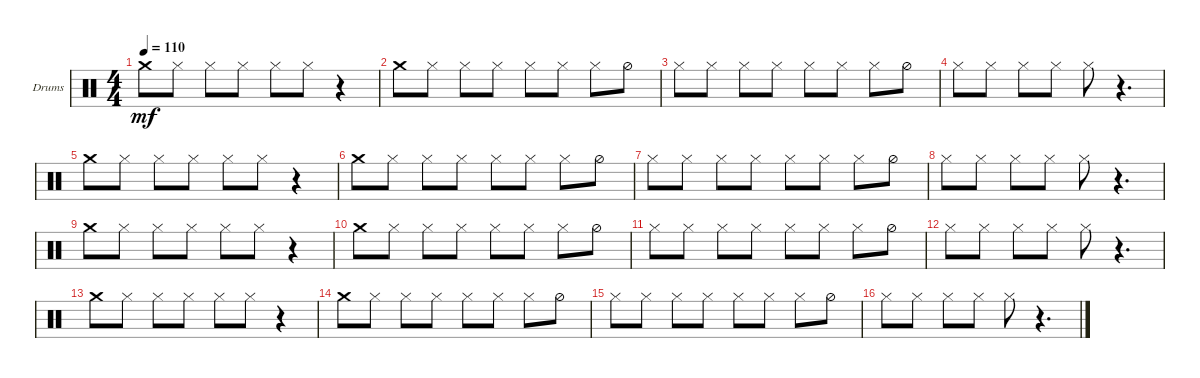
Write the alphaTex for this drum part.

\defaultSystemsLayout 4
\bracketExtendMode groupsimilarinstruments
\firstSystemTrackNameOrientation horizontal
\otherSystemsTrackNameOrientation horizontal
\track ("Drumkit" "Drums") {instrument percussion}
\staff {score}
\articulation defaults
\ts (4 4)
\tempo 110
\clef neutral
\ks c "Crash medium (hit)".8{dy mf} "Hi-Hat (closed)".8 "Hi-Hat (closed)".8 "Hi-Hat (closed)".8 "Hi-Hat (closed)".8 "Hi-Hat (closed)".8
r.4 |
"Crash medium (hit)".8 "Hi-Hat (closed)".8 "Hi-Hat (closed)".8 "Hi-Hat (closed)".8 "Hi-Hat (closed)".8 "Hi-Hat (closed)".8 "Hi-Hat (closed)".8 "Hi-Hat (half)".8 |
"Hi-Hat (closed)".8 "Hi-Hat (closed)".8 "Hi-Hat (closed)".8 "Hi-Hat (closed)".8 "Hi-Hat (closed)".8 "Hi-Hat (closed)".8 "Hi-Hat (closed)".8 "Hi-Hat (half)".8 |
"Hi-Hat (closed)".8 "Hi-Hat (closed)".8 "Hi-Hat (closed)".8 "Hi-Hat (closed)".8 "Hi-Hat (closed)".8 r.4{d} |
"Crash medium (hit)".8 "Hi-Hat (closed)".8 "Hi-Hat (closed)".8 "Hi-Hat (closed)".8 "Hi-Hat (closed)".8 "Hi-Hat (closed)".8 r.4 |
"Crash medium (hit)".8 "Hi-Hat (closed)".8 "Hi-Hat (closed)".8 "Hi-Hat (closed)".8 "Hi-Hat (closed)".8 "Hi-Hat (closed)".8 "Hi-Hat (closed)".8 "Hi-Hat (half)".8 |
"Hi-Hat (closed)".8 "Hi-Hat (closed)".8 "Hi-Hat (closed)".8 "Hi-Hat (closed)".8 "Hi-Hat (closed)".8 "Hi-Hat (closed)".8 "Hi-Hat (closed)".8 "Hi-Hat (half)".8 |
"Hi-Hat (closed)".8 "Hi-Hat (closed)".8 "Hi-Hat (closed)".8 "Hi-Hat (closed)".8 "Hi-Hat (closed)".8 r.4{d} |
"Crash medium (hit)".8 "Hi-Hat (closed)".8 "Hi-Hat (closed)".8 "Hi-Hat (closed)".8 "Hi-Hat (closed)".8 "Hi-Hat (closed)".8 r.4 |
"Crash medium (hit)".8 "Hi-Hat (closed)".8 "Hi-Hat (closed)".8 "Hi-Hat (closed)".8 "Hi-Hat (closed)".8 "Hi-Hat (closed)".8 "Hi-Hat (closed)".8 "Hi-Hat (half)".8 |
"Hi-Hat (closed)".8 "Hi-Hat (closed)".8 "Hi-Hat (closed)".8 "Hi-Hat (closed)".8 "Hi-Hat (closed)".8 "Hi-Hat (closed)".8 "Hi-Hat (closed)".8 "Hi-Hat (half)".8 |
"Hi-Hat (closed)".8 "Hi-Hat (closed)".8 "Hi-Hat (closed)".8 "Hi-Hat (closed)".8 "Hi-Hat (closed)".8 r.4{d} |
"Crash medium (hit)".8 "Hi-Hat (closed)".8 "Hi-Hat (closed)".8 "Hi-Hat (closed)".8 "Hi-Hat (closed)".8 "Hi-Hat (closed)".8 r.4 |
"Crash medium (hit)".8 "Hi-Hat (closed)".8 "Hi-Hat (closed)".8 "Hi-Hat (closed)".8 "Hi-Hat (closed)".8 "Hi-Hat (closed)".8 "Hi-Hat (closed)".8 "Hi-Hat (half)".8 |
"Hi-Hat (closed)".8 "Hi-Hat (closed)".8 "Hi-Hat (closed)".8 "Hi-Hat (closed)".8 "Hi-Hat (closed)".8 "Hi-Hat (closed)".8 "Hi-Hat (closed)".8 "Hi-Hat (half)".8 |
"Hi-Hat (closed)".8 "Hi-Hat (closed)".8 "Hi-Hat (closed)".8 "Hi-Hat (closed)".8 "Hi-Hat (closed)".8 r.4{d}
